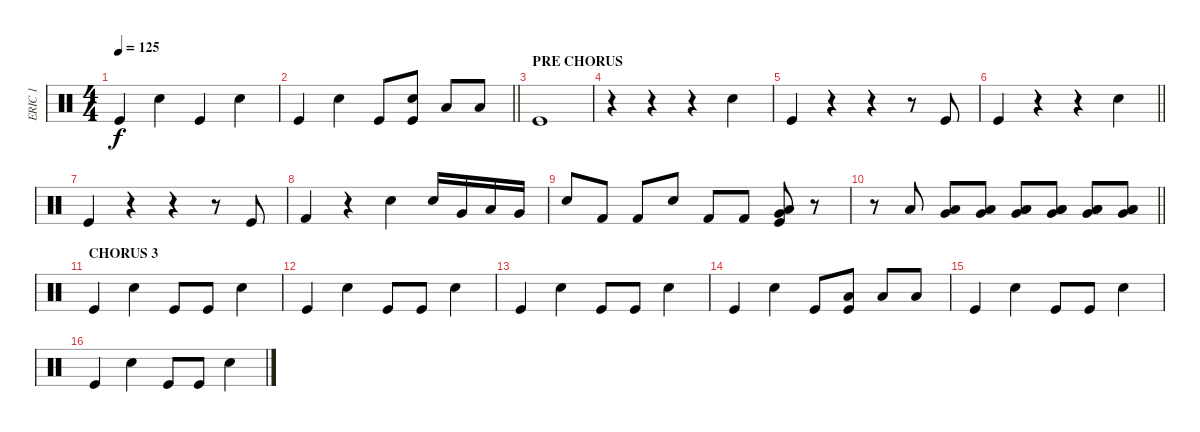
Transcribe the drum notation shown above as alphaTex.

\track ("ERIC 1" "ERIC 1") {instrument percussion}
\staff {score}
\articulation defaults
\ts (4 4)
\tempo 125
\clef neutral
\ks c "Kick (hit)".4{dy f} "Electric Snare (hit)".4 "Kick (hit)".4 "Electric Snare (hit)".4
|
\barLineRight lightlight "Kick (hit)".4 "Electric Snare (hit)".4 "Kick (hit)".8
("Electric Snare (hit)" "Kick (hit)").8 "Low Tom (hit)".8 "Low Floor Tom (hit)".8 |
\section ("" "PRE CHORUS")
"Kick (hit)".1 |
r.4 r.4 r.4 "Electric Snare (hit)".4 |
"Kick (hit)".4 r.4 r.4 r.8 "Kick (hit)".8 |
\barLineRight lightlight "Kick (hit)".4
r.4 r.4 "Electric Snare (hit)".4 |
"Kick (hit)".4 r.4 r.4 r.8 "Kick (hit)".8 |
"Kick (hit) 2".4 r.4 "Electric Snare (hit)".4 "Electric Snare (hit)".16 "Very Low Tom (hit)".16 "Low Floor Tom (hit)".16 "Very Low Tom (hit)".16 |
"Electric Snare (hit)".8 "Kick (hit) 2".8 "Kick (hit) 2".8 "Electric Snare (hit)".8 "Kick (hit) 2".8 "Kick (hit) 2".8 ("Very Low Tom (hit)" "Low Floor Tom (hit)" "Kick (hit)").8 r.8 |
\barLineRight lightlight
r.8 "Low Floor Tom (hit)".8 ("Very Low Tom (hit)" "Low Floor Tom (hit)").8 ("Very Low Tom (hit)" "Low Floor Tom (hit)").8 ("Low Tom (hit)" "Very Low Tom (hit)" "Low Floor Tom (hit)").8 ("Low Tom (hit)" "Very Low Tom (hit)" "Low Floor Tom (hit)").8 ("Low Tom (hit)" "Very Low Tom (hit)" "Low Floor Tom (hit)").8 ("Low Tom (hit)" "Very Low Tom (hit)" "Low Floor Tom (hit)").8 |
\section ("" "CHORUS 3")
"Kick (hit)".4 "Electric Snare (hit)".4 "Kick (hit)".8 "Kick (hit)".8 "Electric Snare (hit)".4 |
"Kick (hit)".4 "Electric Snare (hit)".4 "Kick (hit)".8 "Kick (hit)".8 "Electric Snare (hit)".4 |
"Kick (hit)".4 "Electric Snare (hit)".4 "Kick (hit)".8 "Kick (hit)".8 "Electric Snare (hit)".4 |
"Kick (hit)".4 "Electric Snare (hit)".4 "Kick (hit)".8 ("Low Tom (hit)" "Kick (hit)").8 "Low Floor Tom (hit)".8 "Low Floor Tom (hit)".8 |
"Kick (hit)".4 "Electric Snare (hit)".4 "Kick (hit)".8 "Kick (hit)".8 "Electric Snare (hit)".4 |
"Kick (hit)".4 "Electric Snare (hit)".4 "Kick (hit)".8 "Kick (hit)".8 "Electric Snare (hit)".4
